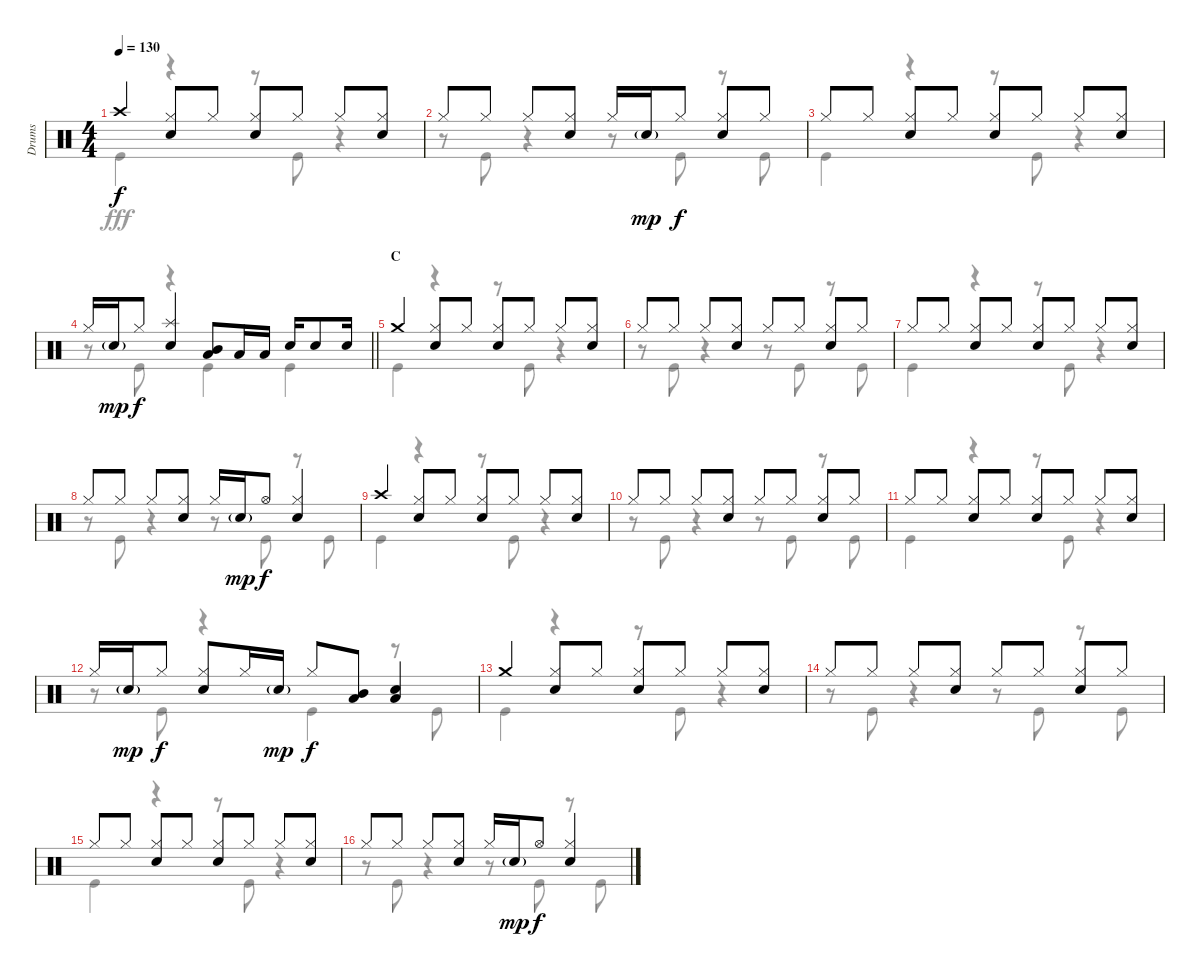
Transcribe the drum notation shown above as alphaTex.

\track ("Drums" "Drums") {instrument percussion}
\staff {score}
\articulation defaults
\voice
\ts (4 4)
\tempo 130
\clef neutral
\ks c "Crash high (hit)".4{dy f}
("Hi-Hat (closed)" "Snare (hit) 2").8 "Hi-Hat (closed)".8 ("Hi-Hat (closed)" "Snare (hit) 2").8 "Hi-Hat (closed)".8 "Hi-Hat (closed)".8 ("Hi-Hat (closed)" "Snare (hit) 2").8 |
"Hi-Hat (closed)".8 "Hi-Hat (closed)".8 "Hi-Hat (closed)".8 ("Hi-Hat (closed)" "Snare (hit) 2").8 "Hi-Hat (closed)".16 "Snare (hit) 2"{g}.16{dy mp} "Hi-Hat (closed)".8{dy f} ("Hi-Hat (closed)" "Snare (hit) 2").8 "Hi-Hat (closed)".8 |
"Hi-Hat (closed)".8 "Hi-Hat (closed)".8 ("Hi-Hat (closed)" "Snare (hit) 2").8 "Hi-Hat (closed)".8 ("Hi-Hat (closed)" "Snare (hit) 2").8 "Hi-Hat (closed)".8 "Hi-Hat (closed)".8 ("Hi-Hat (closed)" "Snare (hit) 2").8 |
\barLineRight lightlight "Hi-Hat (closed)".16 "Snare (hit) 2"{g}.16{dy mp} "Hi-Hat (closed)".8{dy f}
("Splash (hit)" "Snare (hit) 2").4 ("Mid Tom (hit)" "Low Tom (hit)").8 "Low Tom (hit)".16 "Low Tom (hit)".16 "Snare (hit) 2".16 "Snare (hit) 2".8 "Snare (hit) 2".16 |
\section ("" "C")
"Crash medium (hit)".4 ("Hi-Hat (closed)" "Snare (hit) 2").8 "Hi-Hat (closed)".8 ("Hi-Hat (closed)" "Snare (hit) 2").8 "Hi-Hat (closed)".8 "Hi-Hat (closed)".8 ("Hi-Hat (closed)" "Snare (hit) 2").8 |
"Hi-Hat (closed)".8 "Hi-Hat (closed)".8 "Hi-Hat (closed)".8 ("Hi-Hat (closed)" "Snare (hit) 2").8 "Hi-Hat (closed)".8 "Hi-Hat (closed)".8 ("Hi-Hat (closed)" "Snare (hit) 2").8 "Hi-Hat (closed)".8 |
"Hi-Hat (closed)".8 "Hi-Hat (closed)".8 ("Hi-Hat (closed)" "Snare (hit) 2").8 "Hi-Hat (closed)".8 ("Hi-Hat (closed)" "Snare (hit) 2").8 "Hi-Hat (closed)".8 "Hi-Hat (closed)".8 ("Hi-Hat (closed)" "Snare (hit) 2").8 |
"Hi-Hat (closed)".8 "Hi-Hat (closed)".8 "Hi-Hat (closed)".8 ("Hi-Hat (closed)" "Snare (hit) 2").8 "Hi-Hat (closed)".16 "Snare (hit) 2"{g}.16{dy mp} "Hi-Hat (open)".8{dy f} ("Hi-Hat (closed)" "Snare (hit) 2").4 |
"Crash high (hit)".4 ("Hi-Hat (closed)" "Snare (hit) 2").8 "Hi-Hat (closed)".8 ("Hi-Hat (closed)" "Snare (hit) 2").8 "Hi-Hat (closed)".8 "Hi-Hat (closed)".8 ("Hi-Hat (closed)" "Snare (hit) 2").8 |
"Hi-Hat (closed)".8 "Hi-Hat (closed)".8 "Hi-Hat (closed)".8 ("Hi-Hat (closed)" "Snare (hit) 2").8 "Hi-Hat (closed)".8 "Hi-Hat (closed)".8 ("Hi-Hat (closed)" "Snare (hit) 2").8 "Hi-Hat (closed)".8 |
"Hi-Hat (closed)".8 "Hi-Hat (closed)".8 ("Hi-Hat (closed)" "Snare (hit) 2").8 "Hi-Hat (closed)".8 ("Hi-Hat (closed)" "Snare (hit) 2").8 "Hi-Hat (closed)".8 "Hi-Hat (closed)".8 ("Hi-Hat (closed)" "Snare (hit) 2").8 |
"Hi-Hat (closed)".16 "Snare (hit) 2"{g}.16{dy mp} "Hi-Hat (closed)".8{dy f} ("Hi-Hat (closed)" "Snare (hit) 2").8 "Hi-Hat (closed)".16 "Snare (hit) 2"{g}.16{dy mp} "Hi-Hat (closed)".8{dy f} ("Mid Tom (hit)" "Low Tom (hit)").8 ("Low Tom (hit)" "Snare (hit) 2").4 |
"Crash medium (hit)".4 ("Hi-Hat (closed)" "Snare (hit) 2").8 "Hi-Hat (closed)".8 ("Hi-Hat (closed)" "Snare (hit) 2").8 "Hi-Hat (closed)".8 "Hi-Hat (closed)".8 ("Hi-Hat (closed)" "Snare (hit) 2").8 |
"Hi-Hat (closed)".8 "Hi-Hat (closed)".8 "Hi-Hat (closed)".8 ("Hi-Hat (closed)" "Snare (hit) 2").8 "Hi-Hat (closed)".8 "Hi-Hat (closed)".8 ("Hi-Hat (closed)" "Snare (hit) 2").8 "Hi-Hat (closed)".8 |
"Hi-Hat (closed)".8 "Hi-Hat (closed)".8 ("Hi-Hat (closed)" "Snare (hit) 2").8 "Hi-Hat (closed)".8 ("Hi-Hat (closed)" "Snare (hit) 2").8 "Hi-Hat (closed)".8 "Hi-Hat (closed)".8 ("Hi-Hat (closed)" "Snare (hit) 2").8 |
"Hi-Hat (closed)".8 "Hi-Hat (closed)".8 "Hi-Hat (closed)".8 ("Hi-Hat (closed)" "Snare (hit) 2").8 "Hi-Hat (closed)".16 "Snare (hit) 2"{g}.16{dy mp} "Hi-Hat (open)".8{dy f} ("Hi-Hat (closed)" "Snare (hit) 2").4
\voice
\clef neutral
\ottava regular
\simile none
\ks c "Kick (hit)".4{dy fff}
r.4 r.8 "Kick (hit)".8 r.4 |
r.8 "Kick (hit)".8 r.4 r.8 "Kick (hit)".8 r.8 "Kick (hit)".8 |
"Kick (hit)".4 r.4 r.8 "Kick (hit)".8 r.4 |
\barLineRight lightlight
r.8 "Kick (hit)".8 r.4 "Kick (hit)".4 "Kick (hit)".4 |
"Kick (hit)".4 r.4 r.8 "Kick (hit)".8 r.4 |
r.8 "Kick (hit)".8 r.4 r.8 "Kick (hit)".8 r.8 "Kick (hit)".8 |
"Kick (hit)".4 r.4 r.8 "Kick (hit)".8 r.4 |
r.8 "Kick (hit)".8 r.4 r.8 "Kick (hit)".8 r.8 "Kick (hit)".8 |
"Kick (hit)".4 r.4 r.8 "Kick (hit)".8 r.4 |
r.8 "Kick (hit)".8 r.4 r.8 "Kick (hit)".8 r.8 "Kick (hit)".8 |
"Kick (hit)".4 r.4 r.8 "Kick (hit)".8 r.4 |
r.8 "Kick (hit)".8 r.4 "Kick (hit)".4 r.8 "Kick (hit)".8 |
"Kick (hit)".4 r.4 r.8 "Kick (hit)".8 r.4 |
r.8 "Kick (hit)".8 r.4 r.8 "Kick (hit)".8 r.8 "Kick (hit)".8 |
"Kick (hit)".4 r.4 r.8 "Kick (hit)".8 r.4 |
r.8 "Kick (hit)".8 r.4 r.8 "Kick (hit)".8 r.8 "Kick (hit)".8
